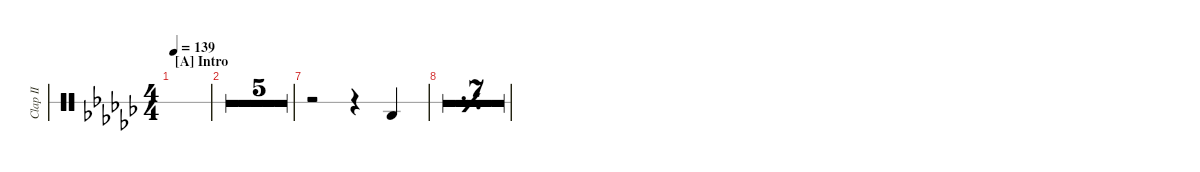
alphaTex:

\defaultSystemsLayout 4
\hideDynamics
\bracketExtendMode groupsimilarinstruments
\otherSystemsTrackNameOrientation horizontal
\track ("Hand Clap II" "Clap II") {multiBarRest instrument percussion}
\staff {score 1}
\articulation defaults
\ts (4 4)
\beaming (8 2 2 2 2)
\section ("A" "Intro")
\tempo 139
\clef neutral
\ks gb
|
|
|
|
|
\barLineRight lightlight
|
r.2 r.4 "Hand Clap (hit)"{acc forcenatural}.4 |
\simile simple
|
|
|
|
|
|
\barLineRight lightlight
